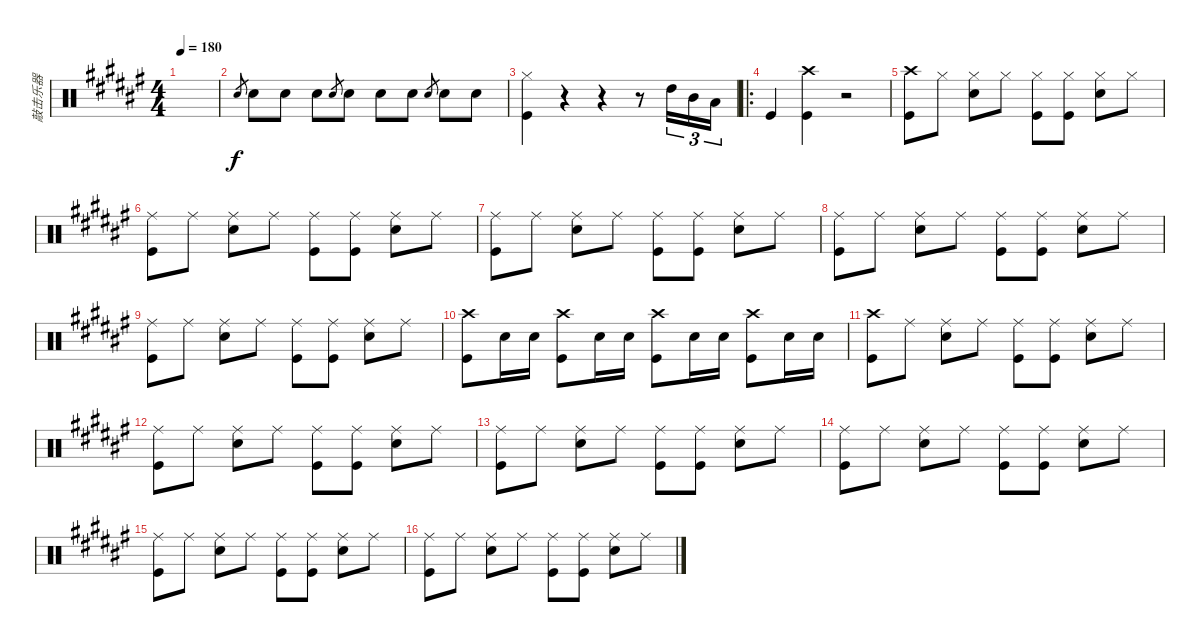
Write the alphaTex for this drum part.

\track ("敲击乐器" "敲击乐器") {instrument percussion}
\staff {score}
\articulation defaults
\ts (4 4)
\tempo 180
\clef neutral
\ks f#
|
"Electric Snare (hit)".8{gr} "Electric Snare (hit)".8 "Electric Snare (hit)".8 "Electric Snare (hit)".8 "Electric Snare (hit)".8{gr} "Electric Snare (hit)".8 "Electric Snare (hit)".8 "Electric Snare (hit)".8 "Electric Snare (hit)".8{gr} "Electric Snare (hit)".8 "Electric Snare (hit)".8 |
("Hi-Hat (closed)" "Kick (hit)").4 r.4 r.4 r.8 "High Tom (hit)".16{tu (3 2)} "Mid Tom (hit)".16{tu (3 2)} "Low Tom (hit)".16{tu (3 2)} |
\ro "Kick (hit)".4
("Crash high (hit)" "Kick (hit)").4 r.2 |
("Crash high (hit)" "Kick (hit)").8 "Hi-Hat (closed)".8 ("Hi-Hat (closed)" "Electric Snare (hit)").8 "Hi-Hat (closed)".8 ("Hi-Hat (closed)" "Kick (hit)").8 ("Hi-Hat (closed)" "Kick (hit)").8 ("Hi-Hat (closed)" "Electric Snare (hit)").8 "Hi-Hat (closed)".8 |
("Ride (middle)" "Kick (hit)").8 "Ride (middle)".8 ("Ride (middle)" "Electric Snare (hit)").8 "Ride (middle)".8 ("Ride (middle)" "Kick (hit)").8 ("Ride (middle)" "Kick (hit)").8 ("Ride (middle)" "Electric Snare (hit)").8 "Ride (middle)".8 |
("Ride (middle)" "Kick (hit)").8 "Ride (middle)".8 ("Ride (middle)" "Electric Snare (hit)").8 "Ride (middle)".8 ("Ride (middle)" "Kick (hit)").8 ("Ride (middle)" "Kick (hit)").8 ("Ride (middle)" "Electric Snare (hit)").8 "Ride (middle)".8 |
("Ride (middle)" "Kick (hit)").8 "Ride (middle)".8 ("Ride (middle)" "Electric Snare (hit)").8 "Ride (middle)".8 ("Ride (middle)" "Kick (hit)").8 ("Ride (middle)" "Kick (hit)").8 ("Ride (middle)" "Electric Snare (hit)").8 "Ride (middle)".8 |
("Ride (middle)" "Kick (hit)").8 "Ride (middle)".8 ("Ride (middle)" "Electric Snare (hit)").8 "Ride (middle)".8 ("Ride (middle)" "Kick (hit)").8 ("Ride (middle)" "Kick (hit)").8 ("Ride (middle)" "Electric Snare (hit)").8 "Ride (middle)".8 |
("Crash high (hit)" "Kick (hit)").8 "Electric Snare (hit)".16 "Electric Snare (hit)".16 ("Crash high (hit)" "Kick (hit)").8 "Electric Snare (hit)".16 "Electric Snare (hit)".16 ("Crash high (hit)" "Kick (hit)").8 "Electric Snare (hit)".16 "Electric Snare (hit)".16 ("Crash high (hit)" "Kick (hit)").8 "Electric Snare (hit)".16 "Electric Snare (hit)".16 |
("Crash high (hit)" "Kick (hit)").8 "Ride (middle)".8 ("Ride (middle)" "Electric Snare (hit)").8 "Ride (middle)".8 ("Ride (middle)" "Kick (hit)").8 ("Ride (middle)" "Kick (hit)").8 ("Ride (middle)" "Electric Snare (hit)").8 "Ride (middle)".8 |
("Ride (middle)" "Kick (hit)").8 "Ride (middle)".8 ("Ride (middle)" "Electric Snare (hit)").8 "Ride (middle)".8 ("Ride (middle)" "Kick (hit)").8 ("Ride (middle)" "Kick (hit)").8 ("Ride (middle)" "Electric Snare (hit)").8 "Ride (middle)".8 |
("Ride (middle)" "Kick (hit)").8 "Ride (middle)".8 ("Ride (middle)" "Electric Snare (hit)").8 "Ride (middle)".8 ("Ride (middle)" "Kick (hit)").8 ("Ride (middle)" "Kick (hit)").8 ("Ride (middle)" "Electric Snare (hit)").8 "Ride (middle)".8 |
("Ride (middle)" "Kick (hit)").8 "Ride (middle)".8 ("Ride (middle)" "Electric Snare (hit)").8 "Ride (middle)".8 ("Ride (middle)" "Kick (hit)").8 ("Ride (middle)" "Kick (hit)").8 ("Ride (middle)" "Electric Snare (hit)").8 "Ride (middle)".8 |
("Ride (middle)" "Kick (hit)").8 "Ride (middle)".8 ("Ride (middle)" "Electric Snare (hit)").8 "Ride (middle)".8 ("Ride (middle)" "Kick (hit)").8 ("Ride (middle)" "Kick (hit)").8 ("Ride (middle)" "Electric Snare (hit)").8 "Ride (middle)".8 |
("Ride (middle)" "Kick (hit)").8 "Ride (middle)".8 ("Ride (middle)" "Electric Snare (hit)").8 "Ride (middle)".8 ("Ride (middle)" "Kick (hit)").8 ("Ride (middle)" "Kick (hit)").8 ("Ride (middle)" "Electric Snare (hit)").8 "Ride (middle)".8
